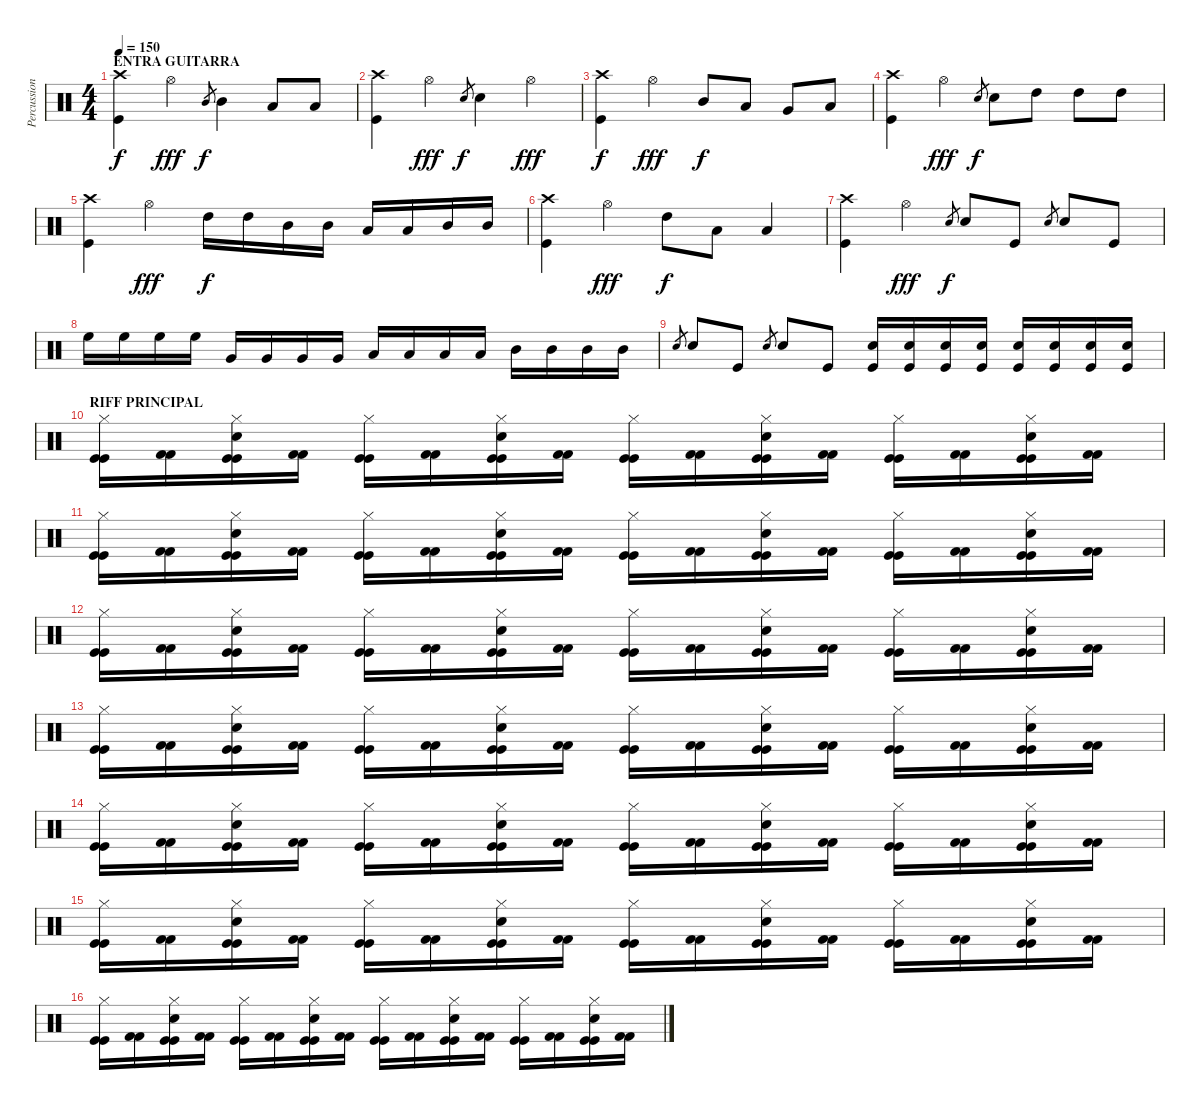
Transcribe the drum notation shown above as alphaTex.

\track ("Percussion" "Percussion") {instrument percussion}
\staff {score}
\articulation defaults
\ts (4 4)
\section ("" "ENTRA GUITARRA")
\tempo 150
\clef neutral
\ks c
("Crash high (hit)" "Kick (hit)").4{dy f} "Hi-Hat (open)".4{dy fff} "Mid Tom (hit)".8{gr dy f} "Mid Tom (hit)".4 "Low Tom (hit)".8 "Low Tom (hit)".8 |
("Crash high (hit)" "Kick (hit)").4 "Hi-Hat (open)".4{dy fff} "Electric Snare (hit)".8{gr dy f} "Electric Snare (hit)".4 "Hi-Hat (open)".4{dy fff} |
("Crash high (hit)" "Kick (hit)").4{dy f} "Hi-Hat (open)".4{dy fff} "Mid Tom (hit)".8{dy f} "Low Tom (hit)".8 "Very Low Tom (hit)".8 "Low Floor Tom (hit)".8 |
("Crash high (hit)" "Kick (hit)").4 "Hi-Hat (open)".4{dy fff} "Electric Snare (hit)".8{gr dy f} "Electric Snare (hit)".8 "High Tom (hit)".8 "High Tom (hit)".8 "High Tom (hit)".8 |
("Crash high (hit)" "Kick (hit)").4 "Hi-Hat (open)".4{dy fff} "High Tom (hit)".16{dy f} "High Tom (hit)".16 "Mid Tom (hit)".16 "Mid Tom (hit)".16 "Low Tom (hit)".16 "Low Tom (hit)".16 "Mid Tom (hit)".16 "Mid Tom (hit)".16 |
("Crash high (hit)" "Kick (hit)").4 "Hi-Hat (open)".4{dy fff} "High Tom (hit)".8{dy f} "Low Tom (hit)".8 "Low Floor Tom (hit)".4 |
("Crash high (hit)" "Kick (hit)").4 "Hi-Hat (open)".4{dy fff} "Electric Snare (hit)".8{gr dy f} "Electric Snare (hit)".8 "Kick (hit)".8 "Electric Snare (hit)".8{gr} "Electric Snare (hit)".8 "Kick (hit)".8 |
"High Floor Tom (hit)".16 "High Floor Tom (hit)".16 "High Floor Tom (hit)".16 "High Floor Tom (hit)".16 "Very Low Tom (hit)".16 "Very Low Tom (hit)".16 "Very Low Tom (hit)".16 "Very Low Tom (hit)".16 "Low Tom (hit)".16 "Low Tom (hit)".16 "Low Tom (hit)".16 "Low Tom (hit)".16 "Mid Tom (hit)".16 "Mid Tom (hit)".16 "Mid Tom (hit)".16 "Mid Tom (hit)".16 |
"Electric Snare (hit)".8{gr} "Electric Snare (hit)".8 "Kick (hit)".8 "Electric Snare (hit)".8{gr} "Electric Snare (hit)".8 "Kick (hit)".8 ("Electric Snare (hit)" "Kick (hit)").16 ("Electric Snare (hit)" "Kick (hit)").16 ("Electric Snare (hit)" "Kick (hit)").16 ("Electric Snare (hit)" "Kick (hit)").16 ("Electric Snare (hit)" "Kick (hit)").16 ("Electric Snare (hit)" "Kick (hit)").16 ("Electric Snare (hit)" "Kick (hit)").16 ("Electric Snare (hit)" "Kick (hit)").16 |
\section ("" "RIFF PRINCIPAL")
("Hi-Hat (closed)" "Kick (hit)" "Kick (hit)").16 ("Kick (hit) 2" "Kick (hit) 2").16 ("Hi-Hat (closed)" "Electric Snare (hit)" "Kick (hit)" "Kick (hit)").16 ("Kick (hit) 2" "Kick (hit) 2").16 ("Hi-Hat (closed)" "Kick (hit)" "Kick (hit)").16 ("Kick (hit) 2" "Kick (hit) 2").16 ("Hi-Hat (closed)" "Electric Snare (hit)" "Kick (hit)" "Kick (hit)").16 ("Kick (hit) 2" "Kick (hit) 2").16 ("Hi-Hat (closed)" "Kick (hit)" "Kick (hit)").16 ("Kick (hit) 2" "Kick (hit) 2").16 ("Hi-Hat (closed)" "Electric Snare (hit)" "Kick (hit)" "Kick (hit)").16 ("Kick (hit) 2" "Kick (hit) 2").16 ("Hi-Hat (closed)" "Kick (hit)" "Kick (hit)").16 ("Kick (hit) 2" "Kick (hit) 2").16 ("Hi-Hat (closed)" "Electric Snare (hit)" "Kick (hit)" "Kick (hit)").16 ("Kick (hit) 2" "Kick (hit) 2").16 |
("Hi-Hat (closed)" "Kick (hit)" "Kick (hit)").16 ("Kick (hit) 2" "Kick (hit) 2").16 ("Hi-Hat (closed)" "Electric Snare (hit)" "Kick (hit)" "Kick (hit)").16 ("Kick (hit) 2" "Kick (hit) 2").16 ("Hi-Hat (closed)" "Kick (hit)" "Kick (hit)").16 ("Kick (hit) 2" "Kick (hit) 2").16 ("Hi-Hat (closed)" "Electric Snare (hit)" "Kick (hit)" "Kick (hit)").16 ("Kick (hit) 2" "Kick (hit) 2").16 ("Hi-Hat (closed)" "Kick (hit)" "Kick (hit)").16 ("Kick (hit) 2" "Kick (hit) 2").16 ("Hi-Hat (closed)" "Electric Snare (hit)" "Kick (hit)" "Kick (hit)").16 ("Kick (hit) 2" "Kick (hit) 2").16 ("Hi-Hat (closed)" "Kick (hit)" "Kick (hit)").16 ("Kick (hit) 2" "Kick (hit) 2").16 ("Hi-Hat (closed)" "Electric Snare (hit)" "Kick (hit)" "Kick (hit)").16 ("Kick (hit) 2" "Kick (hit) 2").16 |
("Hi-Hat (closed)" "Kick (hit)" "Kick (hit)").16 ("Kick (hit) 2" "Kick (hit) 2").16 ("Hi-Hat (closed)" "Electric Snare (hit)" "Kick (hit)" "Kick (hit)").16 ("Kick (hit) 2" "Kick (hit) 2").16 ("Hi-Hat (closed)" "Kick (hit)" "Kick (hit)").16 ("Kick (hit) 2" "Kick (hit) 2").16 ("Hi-Hat (closed)" "Electric Snare (hit)" "Kick (hit)" "Kick (hit)").16 ("Kick (hit) 2" "Kick (hit) 2").16 ("Hi-Hat (closed)" "Kick (hit)" "Kick (hit)").16 ("Kick (hit) 2" "Kick (hit) 2").16 ("Hi-Hat (closed)" "Electric Snare (hit)" "Kick (hit)" "Kick (hit)").16 ("Kick (hit) 2" "Kick (hit) 2").16 ("Hi-Hat (closed)" "Kick (hit)" "Kick (hit)").16 ("Kick (hit) 2" "Kick (hit) 2").16 ("Hi-Hat (closed)" "Electric Snare (hit)" "Kick (hit)" "Kick (hit)").16 ("Kick (hit) 2" "Kick (hit) 2").16 |
("Hi-Hat (closed)" "Kick (hit)" "Kick (hit)").16 ("Kick (hit) 2" "Kick (hit) 2").16 ("Hi-Hat (closed)" "Electric Snare (hit)" "Kick (hit)" "Kick (hit)").16 ("Kick (hit) 2" "Kick (hit) 2").16 ("Hi-Hat (closed)" "Kick (hit)" "Kick (hit)").16 ("Kick (hit) 2" "Kick (hit) 2").16 ("Hi-Hat (closed)" "Electric Snare (hit)" "Kick (hit)" "Kick (hit)").16 ("Kick (hit) 2" "Kick (hit) 2").16 ("Hi-Hat (closed)" "Kick (hit)" "Kick (hit)").16 ("Kick (hit) 2" "Kick (hit) 2").16 ("Hi-Hat (closed)" "Electric Snare (hit)" "Kick (hit)" "Kick (hit)").16 ("Kick (hit) 2" "Kick (hit) 2").16 ("Hi-Hat (closed)" "Kick (hit)" "Kick (hit)").16 ("Kick (hit) 2" "Kick (hit) 2").16 ("Hi-Hat (closed)" "Electric Snare (hit)" "Kick (hit)" "Kick (hit)").16 ("Kick (hit) 2" "Kick (hit) 2").16 |
("Hi-Hat (closed)" "Kick (hit)" "Kick (hit)").16 ("Kick (hit) 2" "Kick (hit) 2").16 ("Hi-Hat (closed)" "Electric Snare (hit)" "Kick (hit)" "Kick (hit)").16 ("Kick (hit) 2" "Kick (hit) 2").16 ("Hi-Hat (closed)" "Kick (hit)" "Kick (hit)").16 ("Kick (hit) 2" "Kick (hit) 2").16 ("Hi-Hat (closed)" "Electric Snare (hit)" "Kick (hit)" "Kick (hit)").16 ("Kick (hit) 2" "Kick (hit) 2").16 ("Hi-Hat (closed)" "Kick (hit)" "Kick (hit)").16 ("Kick (hit) 2" "Kick (hit) 2").16 ("Hi-Hat (closed)" "Electric Snare (hit)" "Kick (hit)" "Kick (hit)").16 ("Kick (hit) 2" "Kick (hit) 2").16 ("Hi-Hat (closed)" "Kick (hit)" "Kick (hit)").16 ("Kick (hit) 2" "Kick (hit) 2").16 ("Hi-Hat (closed)" "Electric Snare (hit)" "Kick (hit)" "Kick (hit)").16 ("Kick (hit) 2" "Kick (hit) 2").16 |
("Hi-Hat (closed)" "Kick (hit)" "Kick (hit)").16 ("Kick (hit) 2" "Kick (hit) 2").16 ("Hi-Hat (closed)" "Electric Snare (hit)" "Kick (hit)" "Kick (hit)").16 ("Kick (hit) 2" "Kick (hit) 2").16 ("Hi-Hat (closed)" "Kick (hit)" "Kick (hit)").16 ("Kick (hit) 2" "Kick (hit) 2").16 ("Hi-Hat (closed)" "Electric Snare (hit)" "Kick (hit)" "Kick (hit)").16 ("Kick (hit) 2" "Kick (hit) 2").16 ("Hi-Hat (closed)" "Kick (hit)" "Kick (hit)").16 ("Kick (hit) 2" "Kick (hit) 2").16 ("Hi-Hat (closed)" "Electric Snare (hit)" "Kick (hit)" "Kick (hit)").16 ("Kick (hit) 2" "Kick (hit) 2").16 ("Hi-Hat (closed)" "Kick (hit)" "Kick (hit)").16 ("Kick (hit) 2" "Kick (hit) 2").16 ("Hi-Hat (closed)" "Electric Snare (hit)" "Kick (hit)" "Kick (hit)").16 ("Kick (hit) 2" "Kick (hit) 2").16 |
("Hi-Hat (closed)" "Kick (hit)" "Kick (hit)").16 ("Kick (hit) 2" "Kick (hit) 2").16 ("Hi-Hat (closed)" "Electric Snare (hit)" "Kick (hit)" "Kick (hit)").16 ("Kick (hit) 2" "Kick (hit) 2").16 ("Hi-Hat (closed)" "Kick (hit)" "Kick (hit)").16 ("Kick (hit) 2" "Kick (hit) 2").16 ("Hi-Hat (closed)" "Electric Snare (hit)" "Kick (hit)" "Kick (hit)").16 ("Kick (hit) 2" "Kick (hit) 2").16 ("Hi-Hat (closed)" "Kick (hit)" "Kick (hit)").16 ("Kick (hit) 2" "Kick (hit) 2").16 ("Hi-Hat (closed)" "Electric Snare (hit)" "Kick (hit)" "Kick (hit)").16 ("Kick (hit) 2" "Kick (hit) 2").16 ("Hi-Hat (closed)" "Kick (hit)" "Kick (hit)").16 ("Kick (hit) 2" "Kick (hit) 2").16 ("Hi-Hat (closed)" "Electric Snare (hit)" "Kick (hit)" "Kick (hit)").16 ("Kick (hit) 2" "Kick (hit) 2").16
